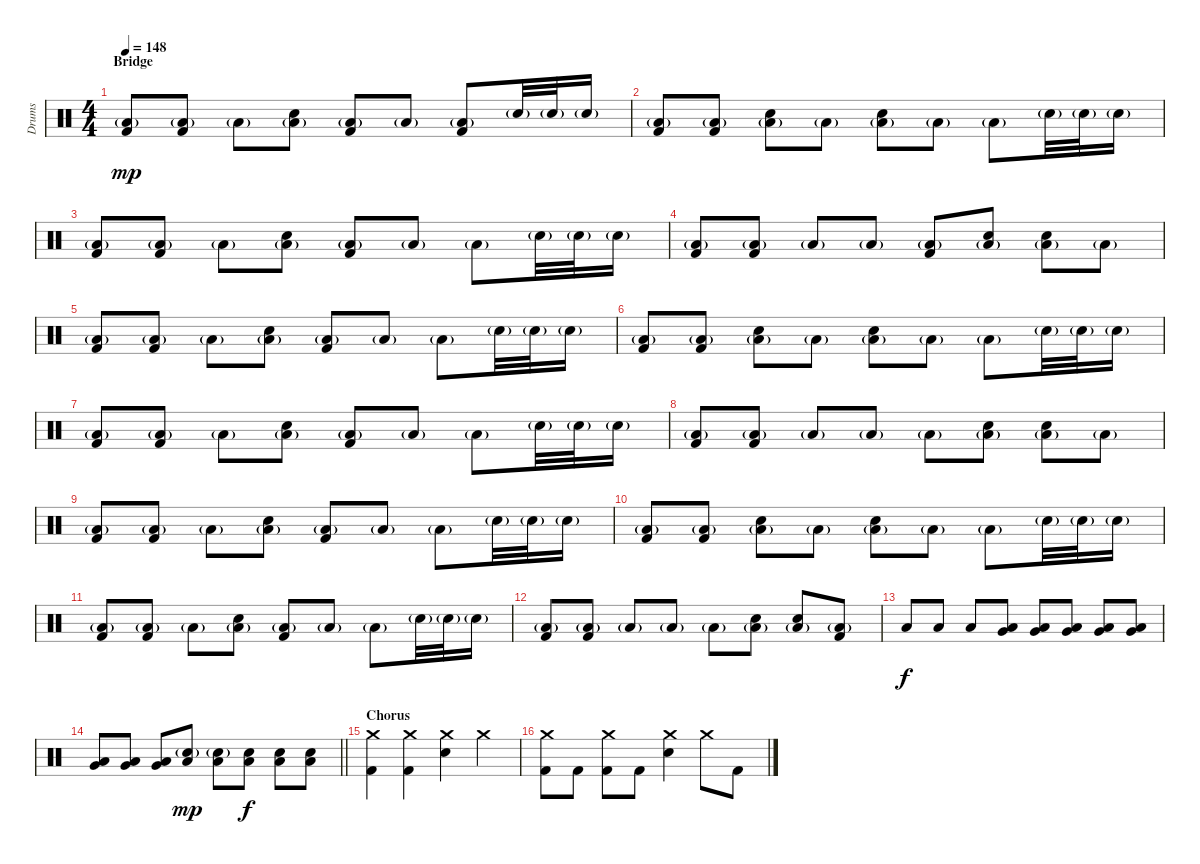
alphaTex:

\track ("Drums" "Drums") {instrument percussion}
\staff {score}
\articulation defaults
\ts (4 4)
\section ("" "Bridge")
\tempo 148
\clef neutral
\ks c
("Low Floor Tom (hit)"{g} "Kick (hit) 2").8{dy mp} ("Low Floor Tom (hit)"{g} "Kick (hit) 2").8 "Low Floor Tom (hit)"{g}.8 ("Low Floor Tom (hit)"{g} "Electric Snare (hit)").8 ("Low Floor Tom (hit)"{g} "Kick (hit) 2").8 "Low Floor Tom (hit)"{g}.8 ("Low Floor Tom (hit)"{g} "Kick (hit) 2").8 "Electric Snare (hit)"{g}.32 "Electric Snare (hit)"{g}.32 "Electric Snare (hit)"{g}.16 |
("Low Floor Tom (hit)"{g} "Kick (hit) 2").8 ("Low Floor Tom (hit)"{g} "Kick (hit) 2").8 ("Low Floor Tom (hit)"{g} "Electric Snare (hit)").8 "Low Floor Tom (hit)"{g}.8 ("Low Floor Tom (hit)"{g} "Electric Snare (hit)").8 "Low Floor Tom (hit)"{g}.8 "Low Floor Tom (hit)"{g}.8 "Electric Snare (hit)"{g}.32 "Electric Snare (hit)"{g}.32 "Electric Snare (hit)"{g}.16 |
("Low Floor Tom (hit)"{g} "Kick (hit) 2").8 ("Low Floor Tom (hit)"{g} "Kick (hit) 2").8 "Low Floor Tom (hit)"{g}.8 ("Low Floor Tom (hit)"{g} "Electric Snare (hit)").8 ("Low Floor Tom (hit)"{g} "Kick (hit) 2").8 "Low Floor Tom (hit)"{g}.8 "Low Floor Tom (hit)"{g}.8 "Electric Snare (hit)"{g}.32 "Electric Snare (hit)"{g}.32 "Electric Snare (hit)"{g}.16 |
("Low Floor Tom (hit)"{g} "Kick (hit) 2").8 ("Low Floor Tom (hit)"{g} "Kick (hit) 2").8 "Low Floor Tom (hit)"{g}.8 "Low Floor Tom (hit)"{g}.8 ("Low Floor Tom (hit)"{g} "Kick (hit) 2").8 ("Low Floor Tom (hit)"{g} "Electric Snare (hit)").8 ("Low Floor Tom (hit)"{g} "Electric Snare (hit)").8 "Low Floor Tom (hit)"{g}.8 |
("Low Floor Tom (hit)"{g} "Kick (hit) 2").8 ("Low Floor Tom (hit)"{g} "Kick (hit) 2").8 "Low Floor Tom (hit)"{g}.8 ("Low Floor Tom (hit)"{g} "Electric Snare (hit)").8 ("Low Floor Tom (hit)"{g} "Kick (hit) 2").8 "Low Floor Tom (hit)"{g}.8 "Low Floor Tom (hit)"{g}.8 "Electric Snare (hit)"{g}.32 "Electric Snare (hit)"{g}.32 "Electric Snare (hit)"{g}.16 |
("Low Floor Tom (hit)"{g} "Kick (hit) 2").8 ("Low Floor Tom (hit)"{g} "Kick (hit) 2").8 ("Low Floor Tom (hit)"{g} "Electric Snare (hit)").8 "Low Floor Tom (hit)"{g}.8 ("Low Floor Tom (hit)"{g} "Electric Snare (hit)").8 "Low Floor Tom (hit)"{g}.8 "Low Floor Tom (hit)"{g}.8 "Electric Snare (hit)"{g}.32 "Electric Snare (hit)"{g}.32 "Electric Snare (hit)"{g}.16 |
("Low Floor Tom (hit)"{g} "Kick (hit) 2").8 ("Low Floor Tom (hit)"{g} "Kick (hit) 2").8 "Low Floor Tom (hit)"{g}.8 ("Low Floor Tom (hit)"{g} "Electric Snare (hit)").8 ("Low Floor Tom (hit)"{g} "Kick (hit) 2").8 "Low Floor Tom (hit)"{g}.8 "Low Floor Tom (hit)"{g}.8 "Electric Snare (hit)"{g}.32 "Electric Snare (hit)"{g}.32 "Electric Snare (hit)"{g}.16 |
("Low Floor Tom (hit)"{g} "Kick (hit) 2").8 ("Low Floor Tom (hit)"{g} "Kick (hit) 2").8 "Low Floor Tom (hit)"{g}.8 "Low Floor Tom (hit)"{g}.8 "Low Floor Tom (hit)"{g}.8 ("Low Floor Tom (hit)"{g} "Electric Snare (hit)").8 ("Low Floor Tom (hit)"{g} "Electric Snare (hit)").8 "Low Floor Tom (hit)"{g}.8 |
("Low Floor Tom (hit)"{g} "Kick (hit) 2").8 ("Low Floor Tom (hit)"{g} "Kick (hit) 2").8 "Low Floor Tom (hit)"{g}.8 ("Low Floor Tom (hit)"{g} "Electric Snare (hit)").8 ("Low Floor Tom (hit)"{g} "Kick (hit) 2").8 "Low Floor Tom (hit)"{g}.8 "Low Floor Tom (hit)"{g}.8 "Electric Snare (hit)"{g}.32 "Electric Snare (hit)"{g}.32 "Electric Snare (hit)"{g}.16 |
("Low Floor Tom (hit)"{g} "Kick (hit) 2").8 ("Low Floor Tom (hit)"{g} "Kick (hit) 2").8 ("Low Floor Tom (hit)"{g} "Electric Snare (hit)").8 "Low Floor Tom (hit)"{g}.8 ("Low Floor Tom (hit)"{g} "Electric Snare (hit)").8 "Low Floor Tom (hit)"{g}.8 "Low Floor Tom (hit)"{g}.8 "Electric Snare (hit)"{g}.32 "Electric Snare (hit)"{g}.32 "Electric Snare (hit)"{g}.16 |
("Low Floor Tom (hit)"{g} "Kick (hit) 2").8 ("Low Floor Tom (hit)"{g} "Kick (hit) 2").8 "Low Floor Tom (hit)"{g}.8 ("Low Floor Tom (hit)"{g} "Electric Snare (hit)").8 ("Low Floor Tom (hit)"{g} "Kick (hit) 2").8 "Low Floor Tom (hit)"{g}.8 "Low Floor Tom (hit)"{g}.8 "Electric Snare (hit)"{g}.32 "Electric Snare (hit)"{g}.32 "Electric Snare (hit)"{g}.16 |
("Low Floor Tom (hit)"{g} "Kick (hit) 2").8 ("Low Floor Tom (hit)"{g} "Kick (hit) 2").8 "Low Floor Tom (hit)"{g}.8 "Low Floor Tom (hit)"{g}.8 "Low Floor Tom (hit)"{g}.8 ("Low Floor Tom (hit)"{g} "Electric Snare (hit)").8 ("Low Floor Tom (hit)"{g} "Electric Snare (hit)").8 ("Low Floor Tom (hit)"{g} "Kick (hit) 2").8 |
"Low Floor Tom (hit)".8{dy f} "Low Floor Tom (hit)".8 "Low Floor Tom (hit)".8 ("Very Low Tom (hit)" "Low Floor Tom (hit)").8 ("Very Low Tom (hit)" "Low Floor Tom (hit)").8 ("Low Tom (hit)" "Very Low Tom (hit)").8 ("Low Tom (hit)" "Very Low Tom (hit)").8 ("Low Tom (hit)" "Very Low Tom (hit)").8 |
\barLineRight lightlight
("Low Tom (hit)" "Very Low Tom (hit)").8 ("Low Tom (hit)" "Very Low Tom (hit)").8 ("Low Tom (hit)" "Very Low Tom (hit)").8 ("Electric Snare (hit)"{g} "Low Tom (hit)").8{dy mp} ("Electric Snare (hit)"{g} "Low Tom (hit)").8 ("Electric Snare (hit)" "Low Tom (hit)").8{dy f} ("Electric Snare (hit)" "Low Tom (hit)").8 ("Electric Snare (hit)" "Low Tom (hit)").8 |
\section ("" "Chorus")
("Crash medium (hit)" "Kick (hit) 2").4 ("Crash medium (hit)" "Kick (hit) 2").4 ("Crash medium (hit)" "Electric Snare (hit)").4 "Crash medium (hit)".4 |
("Crash medium (hit)" "Kick (hit) 2").8 "Kick (hit) 2".8 ("Crash medium (hit)" "Kick (hit) 2").8 "Kick (hit) 2".8 ("Crash medium (hit)" "Electric Snare (hit)").4 "Crash medium (hit)".8 "Kick (hit) 2".8
